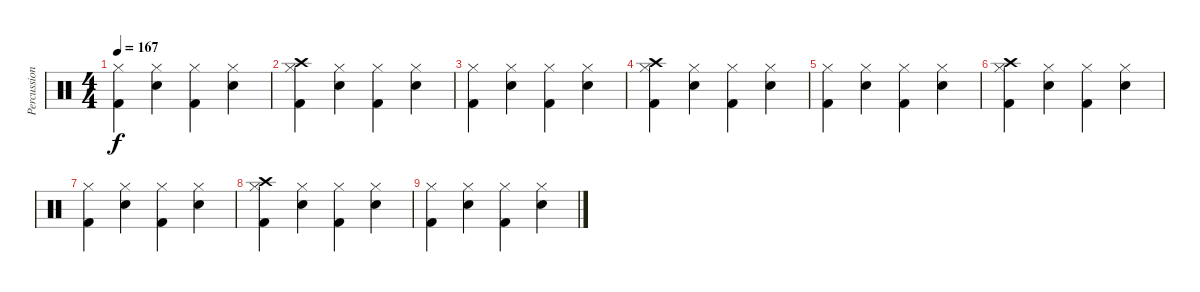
\track ("Percussion" "Percussion") {instrument percussion}
\staff {score}
\articulation defaults
\ts (4 4)
\tempo 167
\clef neutral
\ks c
("Kick (hit) 2" "Hi-Hat (closed)").4{dy f} ("Hi-Hat (closed)" "Electric Snare (hit)").4 ("Kick (hit) 2" "Hi-Hat (closed)").4 ("Hi-Hat (closed)" "Electric Snare (hit)").4 |
("Kick (hit) 2" "Hi-Hat (closed)" "Crash high (hit)").4{volume 12} ("Hi-Hat (closed)" "Electric Snare (hit)").4 ("Kick (hit) 2" "Hi-Hat (closed)").4 ("Hi-Hat (closed)" "Electric Snare (hit)").4 |
("Kick (hit) 2" "Hi-Hat (closed)").4{volume 11} ("Hi-Hat (closed)" "Electric Snare (hit)").4 ("Kick (hit) 2" "Hi-Hat (closed)").4 ("Hi-Hat (closed)" "Electric Snare (hit)").4 |
("Kick (hit) 2" "Hi-Hat (closed)" "Crash high (hit)").4{volume 10} ("Hi-Hat (closed)" "Electric Snare (hit)").4 ("Kick (hit) 2" "Hi-Hat (closed)").4 ("Hi-Hat (closed)" "Electric Snare (hit)").4 |
("Kick (hit) 2" "Hi-Hat (closed)").4{volume 9} ("Hi-Hat (closed)" "Electric Snare (hit)").4 ("Kick (hit) 2" "Hi-Hat (closed)").4 ("Hi-Hat (closed)" "Electric Snare (hit)").4 |
("Kick (hit) 2" "Hi-Hat (closed)" "Crash high (hit)").4{volume 8} ("Hi-Hat (closed)" "Electric Snare (hit)").4 ("Kick (hit) 2" "Hi-Hat (closed)").4 ("Hi-Hat (closed)" "Electric Snare (hit)").4 |
("Kick (hit) 2" "Hi-Hat (closed)").4{volume 7} ("Hi-Hat (closed)" "Electric Snare (hit)").4 ("Kick (hit) 2" "Hi-Hat (closed)").4 ("Hi-Hat (closed)" "Electric Snare (hit)").4 |
("Kick (hit) 2" "Hi-Hat (closed)" "Crash high (hit)").4{volume 6} ("Hi-Hat (closed)" "Electric Snare (hit)").4 ("Kick (hit) 2" "Hi-Hat (closed)").4 ("Hi-Hat (closed)" "Electric Snare (hit)").4 |
("Kick (hit) 2" "Hi-Hat (closed)").4{volume 5} ("Hi-Hat (closed)" "Electric Snare (hit)").4 ("Kick (hit) 2" "Hi-Hat (closed)").4 ("Hi-Hat (closed)" "Electric Snare (hit)").4
